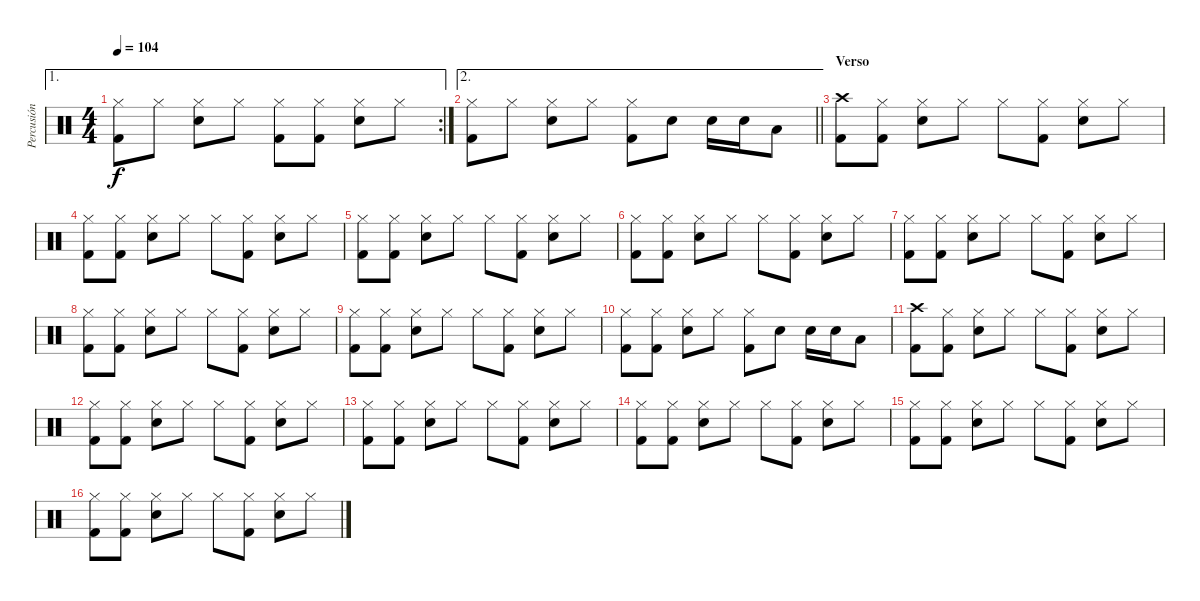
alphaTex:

\track ("Percusión" "Percusión") {instrument percussion}
\staff {score}
\articulation defaults
\ae 1
\rc 2
\ts (4 4)
\tempo 104
\clef neutral
\ks c
("Hi-Hat (closed)" "Kick (hit) 2").8{dy f} "Hi-Hat (closed)".8 ("Hi-Hat (closed)" "Snare (hit) 2").8 "Hi-Hat (closed)".8 ("Hi-Hat (closed)" "Kick (hit) 2").8 ("Hi-Hat (closed)" "Kick (hit) 2").8 ("Hi-Hat (closed)" "Snare (hit) 2").8 "Hi-Hat (closed)".8 |
\ae 2
\barLineRight lightlight
("Hi-Hat (closed)" "Kick (hit) 2").8 "Hi-Hat (closed)".8 ("Hi-Hat (closed)" "Snare (hit) 2").8 "Hi-Hat (closed)".8 ("Hi-Hat (closed)" "Kick (hit) 2").8 "Snare (hit) 2".8 "Snare (hit) 2".16 "Snare (hit) 2".16 "Low Tom (hit)".8 |
\section ("" "Verso")
("Crash high (hit)" "Kick (hit) 2").8 ("Hi-Hat (closed)" "Kick (hit) 2").8 ("Hi-Hat (closed)" "Snare (hit) 2").8 "Hi-Hat (closed)".8 "Hi-Hat (closed)".8 ("Hi-Hat (closed)" "Kick (hit) 2").8 ("Hi-Hat (closed)" "Snare (hit) 2").8 "Hi-Hat (closed)".8 |
("Hi-Hat (closed)" "Kick (hit) 2").8 ("Hi-Hat (closed)" "Kick (hit) 2").8 ("Hi-Hat (closed)" "Snare (hit) 2").8 "Hi-Hat (closed)".8 "Hi-Hat (closed)".8 ("Hi-Hat (closed)" "Kick (hit) 2").8 ("Hi-Hat (closed)" "Snare (hit) 2").8 "Hi-Hat (closed)".8 |
("Hi-Hat (closed)" "Kick (hit) 2").8 ("Hi-Hat (closed)" "Kick (hit) 2").8 ("Hi-Hat (closed)" "Snare (hit) 2").8 "Hi-Hat (closed)".8 "Hi-Hat (closed)".8 ("Hi-Hat (closed)" "Kick (hit) 2").8 ("Hi-Hat (closed)" "Snare (hit) 2").8 "Hi-Hat (closed)".8 |
("Hi-Hat (closed)" "Kick (hit) 2").8 ("Hi-Hat (closed)" "Kick (hit) 2").8 ("Hi-Hat (closed)" "Snare (hit) 2").8 "Hi-Hat (closed)".8 "Hi-Hat (closed)".8 ("Hi-Hat (closed)" "Kick (hit) 2").8 ("Hi-Hat (closed)" "Snare (hit) 2").8 "Hi-Hat (closed)".8 |
("Hi-Hat (closed)" "Kick (hit) 2").8 ("Hi-Hat (closed)" "Kick (hit) 2").8 ("Hi-Hat (closed)" "Snare (hit) 2").8 "Hi-Hat (closed)".8 "Hi-Hat (closed)".8 ("Hi-Hat (closed)" "Kick (hit) 2").8 ("Hi-Hat (closed)" "Snare (hit) 2").8 "Hi-Hat (closed)".8 |
("Hi-Hat (closed)" "Kick (hit) 2").8 ("Hi-Hat (closed)" "Kick (hit) 2").8 ("Hi-Hat (closed)" "Snare (hit) 2").8 "Hi-Hat (closed)".8 "Hi-Hat (closed)".8 ("Hi-Hat (closed)" "Kick (hit) 2").8 ("Hi-Hat (closed)" "Snare (hit) 2").8 "Hi-Hat (closed)".8 |
("Hi-Hat (closed)" "Kick (hit) 2").8 ("Hi-Hat (closed)" "Kick (hit) 2").8 ("Hi-Hat (closed)" "Snare (hit) 2").8 "Hi-Hat (closed)".8 "Hi-Hat (closed)".8 ("Hi-Hat (closed)" "Kick (hit) 2").8 ("Hi-Hat (closed)" "Snare (hit) 2").8 "Hi-Hat (closed)".8 |
("Hi-Hat (closed)" "Kick (hit) 2").8 ("Hi-Hat (closed)" "Kick (hit) 2").8 ("Hi-Hat (closed)" "Snare (hit) 2").8 "Hi-Hat (closed)".8 ("Hi-Hat (closed)" "Kick (hit) 2").8 "Snare (hit) 2".8 "Snare (hit) 2".16 "Snare (hit) 2".16 "Low Tom (hit)".8 |
("Crash high (hit)" "Kick (hit) 2").8 ("Hi-Hat (closed)" "Kick (hit) 2").8 ("Hi-Hat (closed)" "Snare (hit) 2").8 "Hi-Hat (closed)".8 "Hi-Hat (closed)".8 ("Hi-Hat (closed)" "Kick (hit) 2").8 ("Hi-Hat (closed)" "Snare (hit) 2").8 "Hi-Hat (closed)".8 |
("Hi-Hat (closed)" "Kick (hit) 2").8 ("Hi-Hat (closed)" "Kick (hit) 2").8 ("Hi-Hat (closed)" "Snare (hit) 2").8 "Hi-Hat (closed)".8 "Hi-Hat (closed)".8 ("Hi-Hat (closed)" "Kick (hit) 2").8 ("Hi-Hat (closed)" "Snare (hit) 2").8 "Hi-Hat (closed)".8 |
("Hi-Hat (closed)" "Kick (hit) 2").8 ("Hi-Hat (closed)" "Kick (hit) 2").8 ("Hi-Hat (closed)" "Snare (hit) 2").8 "Hi-Hat (closed)".8 "Hi-Hat (closed)".8 ("Hi-Hat (closed)" "Kick (hit) 2").8 ("Hi-Hat (closed)" "Snare (hit) 2").8 "Hi-Hat (closed)".8 |
("Hi-Hat (closed)" "Kick (hit) 2").8 ("Hi-Hat (closed)" "Kick (hit) 2").8 ("Hi-Hat (closed)" "Snare (hit) 2").8 "Hi-Hat (closed)".8 "Hi-Hat (closed)".8 ("Hi-Hat (closed)" "Kick (hit) 2").8 ("Hi-Hat (closed)" "Snare (hit) 2").8 "Hi-Hat (closed)".8 |
("Hi-Hat (closed)" "Kick (hit) 2").8 ("Hi-Hat (closed)" "Kick (hit) 2").8 ("Hi-Hat (closed)" "Snare (hit) 2").8 "Hi-Hat (closed)".8 "Hi-Hat (closed)".8 ("Hi-Hat (closed)" "Kick (hit) 2").8 ("Hi-Hat (closed)" "Snare (hit) 2").8 "Hi-Hat (closed)".8 |
("Hi-Hat (closed)" "Kick (hit) 2").8 ("Hi-Hat (closed)" "Kick (hit) 2").8 ("Hi-Hat (closed)" "Snare (hit) 2").8 "Hi-Hat (closed)".8 "Hi-Hat (closed)".8 ("Hi-Hat (closed)" "Kick (hit) 2").8 ("Hi-Hat (closed)" "Snare (hit) 2").8 "Hi-Hat (closed)".8
